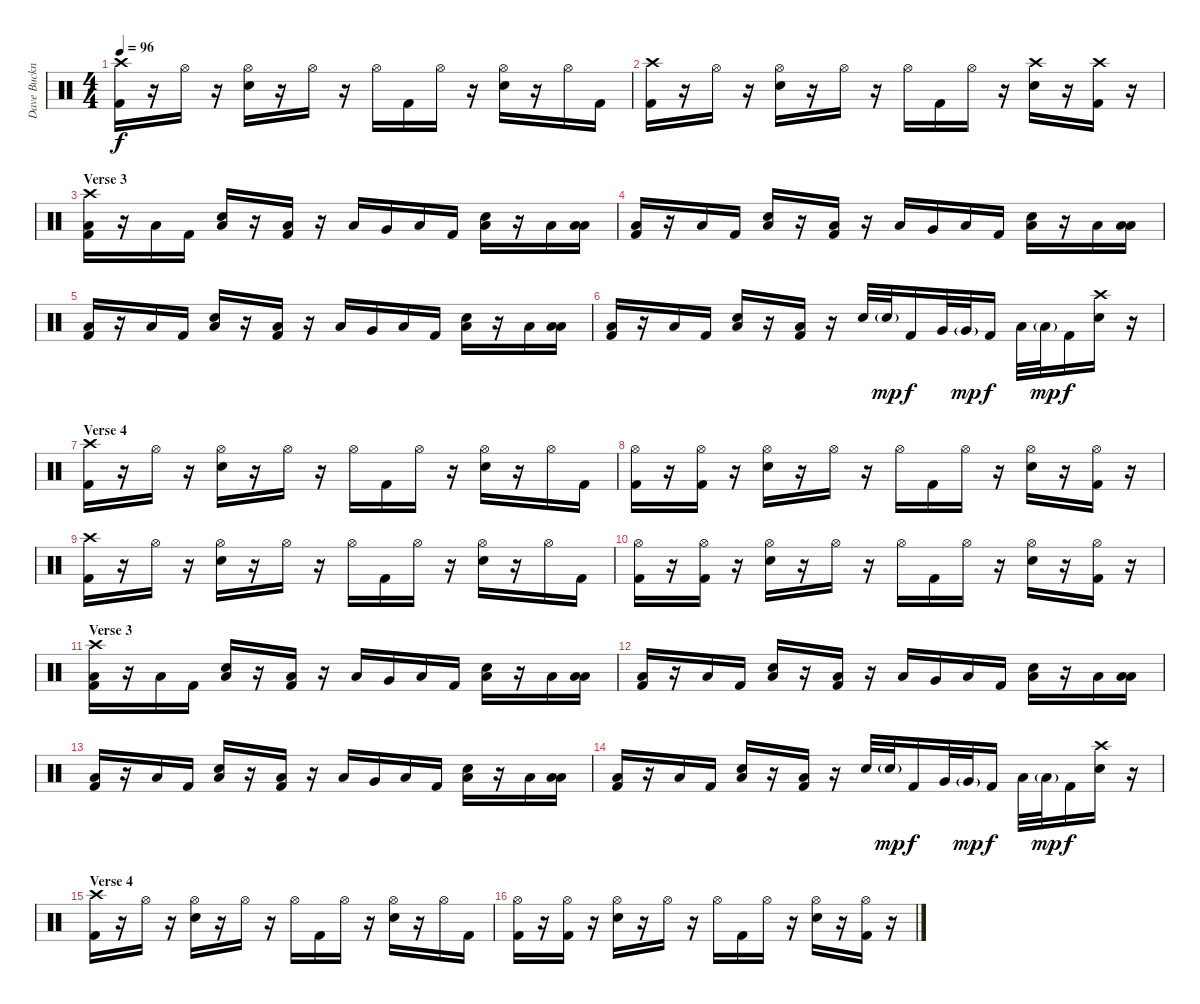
\track ("Dave Buckner" "Dave Buckn") {instrument percussion}
\staff {score}
\articulation defaults
\ts (4 4)
\tempo 96
\clef neutral
\ks c
("Crash high (hit)" "Kick (hit) 2").16{dy f} r.16 "Hi-Hat (open)".16 r.16 ("Hi-Hat (open)" "Snare (hit) 2").16 r.16 "Hi-Hat (open)".16 r.16 "Hi-Hat (open)".16 "Kick (hit) 2".16 "Hi-Hat (open)".16 r.16 ("Hi-Hat (open)" "Snare (hit) 2").16 r.16 "Hi-Hat (open)".16 "Kick (hit) 2".16 |
("Crash high (hit)" "Kick (hit) 2").16 r.16 "Hi-Hat (open)".16 r.16 ("Hi-Hat (open)" "Snare (hit) 2").16 r.16 "Hi-Hat (open)".16 r.16 "Hi-Hat (open)".16 "Kick (hit) 2".16 "Hi-Hat (open)".16 r.16 ("Crash high (hit)" "Snare (hit) 2").16 r.16 ("Crash high (hit)" "Kick (hit) 2").16 r.16 |
\section ("" "Verse 3")
("Crash high (hit)" "Low Floor Tom (hit)" "Kick (hit) 2").16 r.16 "Low Tom (hit)".16 "Kick (hit) 2".16 ("Low Floor Tom (hit)" "Snare (hit) 2").16 r.16 ("Low Floor Tom (hit)" "Kick (hit) 2").16 r.16 "Low Floor Tom (hit)".16 "Very Low Tom (hit)".16 "Low Tom (hit)".16 "Kick (hit) 2".16 ("Low Floor Tom (hit)" "Snare (hit) 2").16 r.16 "Low Floor Tom (hit)".16 ("Low Tom (hit)" "Low Floor Tom (hit)").16 |
("Low Floor Tom (hit)" "Kick (hit) 2").16 r.16 "Low Tom (hit)".16 "Kick (hit) 2".16 ("Low Floor Tom (hit)" "Snare (hit) 2").16 r.16 ("Low Floor Tom (hit)" "Kick (hit) 2").16 r.16 "Low Floor Tom (hit)".16 "Very Low Tom (hit)".16 "Low Tom (hit)".16 "Kick (hit) 2".16 ("Low Floor Tom (hit)" "Snare (hit) 2").16 r.16 "Low Floor Tom (hit)".16 ("Low Tom (hit)" "Low Floor Tom (hit)").16 |
("Low Floor Tom (hit)" "Kick (hit) 2").16 r.16 "Low Tom (hit)".16 "Kick (hit) 2".16 ("Low Floor Tom (hit)" "Snare (hit) 2").16 r.16 ("Low Floor Tom (hit)" "Kick (hit) 2").16 r.16 "Low Floor Tom (hit)".16 "Very Low Tom (hit)".16 "Low Tom (hit)".16 "Kick (hit) 2".16 ("Low Floor Tom (hit)" "Snare (hit) 2").16 r.16 "Low Floor Tom (hit)".16 ("Low Tom (hit)" "Low Floor Tom (hit)").16 |
("Low Floor Tom (hit)" "Kick (hit) 2").16 r.16 "Low Tom (hit)".16 "Kick (hit) 2".16 ("Low Floor Tom (hit)" "Snare (hit) 2").16 r.16 ("Low Floor Tom (hit)" "Kick (hit) 2").16 r.16 "Snare (hit) 2".32 "Snare (hit) 2"{g}.32{dy mp} "Kick (hit) 2".16{dy f} "Very Low Tom (hit)".32 "Very Low Tom (hit)"{g}.32{dy mp} "Kick (hit) 2".16{dy f} "Low Tom (hit)".32 "Low Tom (hit)"{g}.32{dy mp} "Kick (hit) 2".16{dy f} ("Crash high (hit)" "Snare (hit) 2").16 r.16 |
\section ("" "Verse 4")
("Crash high (hit)" "Kick (hit) 2").16 r.16 "Hi-Hat (open)".16 r.16 ("Hi-Hat (open)" "Snare (hit) 2").16 r.16 "Hi-Hat (open)".16 r.16 "Hi-Hat (open)".16 "Kick (hit) 2".16 "Hi-Hat (open)".16 r.16 ("Hi-Hat (open)" "Snare (hit) 2").16 r.16 "Hi-Hat (open)".16 "Kick (hit) 2".16 |
("Hi-Hat (open)" "Kick (hit) 2").16 r.16 ("Hi-Hat (open)" "Kick (hit) 2").16 r.16 ("Hi-Hat (open)" "Snare (hit) 2").16 r.16 "Hi-Hat (open)".16 r.16 "Hi-Hat (open)".16 "Kick (hit) 2".16 "Hi-Hat (open)".16 r.16 ("Hi-Hat (open)" "Snare (hit) 2").16 r.16 ("Hi-Hat (open)" "Kick (hit) 2").16 r.16 |
("Crash high (hit)" "Kick (hit) 2").16 r.16 "Hi-Hat (open)".16 r.16 ("Hi-Hat (open)" "Snare (hit) 2").16 r.16 "Hi-Hat (open)".16 r.16 "Hi-Hat (open)".16 "Kick (hit) 2".16 "Hi-Hat (open)".16 r.16 ("Hi-Hat (open)" "Snare (hit) 2").16 r.16 "Hi-Hat (open)".16 "Kick (hit) 2".16 |
("Hi-Hat (open)" "Kick (hit) 2").16 r.16 ("Hi-Hat (open)" "Kick (hit) 2").16 r.16 ("Hi-Hat (open)" "Snare (hit) 2").16 r.16 "Hi-Hat (open)".16 r.16 "Hi-Hat (open)".16 "Kick (hit) 2".16 "Hi-Hat (open)".16 r.16 ("Hi-Hat (open)" "Snare (hit) 2").16 r.16 ("Hi-Hat (open)" "Kick (hit) 2").16 r.16 |
\section ("" "Verse 3")
("Crash high (hit)" "Low Floor Tom (hit)" "Kick (hit) 2").16 r.16 "Low Tom (hit)".16 "Kick (hit) 2".16 ("Low Floor Tom (hit)" "Snare (hit) 2").16 r.16 ("Low Floor Tom (hit)" "Kick (hit) 2").16 r.16 "Low Floor Tom (hit)".16 "Very Low Tom (hit)".16 "Low Tom (hit)".16 "Kick (hit) 2".16 ("Low Floor Tom (hit)" "Snare (hit) 2").16 r.16 "Low Floor Tom (hit)".16 ("Low Tom (hit)" "Low Floor Tom (hit)").16 |
("Low Floor Tom (hit)" "Kick (hit) 2").16 r.16 "Low Tom (hit)".16 "Kick (hit) 2".16 ("Low Floor Tom (hit)" "Snare (hit) 2").16 r.16 ("Low Floor Tom (hit)" "Kick (hit) 2").16 r.16 "Low Floor Tom (hit)".16 "Very Low Tom (hit)".16 "Low Tom (hit)".16 "Kick (hit) 2".16 ("Low Floor Tom (hit)" "Snare (hit) 2").16 r.16 "Low Floor Tom (hit)".16 ("Low Tom (hit)" "Low Floor Tom (hit)").16 |
("Low Floor Tom (hit)" "Kick (hit) 2").16 r.16 "Low Tom (hit)".16 "Kick (hit) 2".16 ("Low Floor Tom (hit)" "Snare (hit) 2").16 r.16 ("Low Floor Tom (hit)" "Kick (hit) 2").16 r.16 "Low Floor Tom (hit)".16 "Very Low Tom (hit)".16 "Low Tom (hit)".16 "Kick (hit) 2".16 ("Low Floor Tom (hit)" "Snare (hit) 2").16 r.16 "Low Floor Tom (hit)".16 ("Low Tom (hit)" "Low Floor Tom (hit)").16 |
("Low Floor Tom (hit)" "Kick (hit) 2").16 r.16 "Low Tom (hit)".16 "Kick (hit) 2".16 ("Low Floor Tom (hit)" "Snare (hit) 2").16 r.16 ("Low Floor Tom (hit)" "Kick (hit) 2").16 r.16 "Snare (hit) 2".32 "Snare (hit) 2"{g}.32{dy mp} "Kick (hit) 2".16{dy f} "Very Low Tom (hit)".32 "Very Low Tom (hit)"{g}.32{dy mp} "Kick (hit) 2".16{dy f} "Low Tom (hit)".32 "Low Tom (hit)"{g}.32{dy mp} "Kick (hit) 2".16{dy f} ("Crash high (hit)" "Snare (hit) 2").16 r.16 |
\section ("" "Verse 4")
("Crash high (hit)" "Kick (hit) 2").16 r.16 "Hi-Hat (open)".16 r.16 ("Hi-Hat (open)" "Snare (hit) 2").16 r.16 "Hi-Hat (open)".16 r.16 "Hi-Hat (open)".16 "Kick (hit) 2".16 "Hi-Hat (open)".16 r.16 ("Hi-Hat (open)" "Snare (hit) 2").16 r.16 "Hi-Hat (open)".16 "Kick (hit) 2".16 |
("Hi-Hat (open)" "Kick (hit) 2").16 r.16 ("Hi-Hat (open)" "Kick (hit) 2").16 r.16 ("Hi-Hat (open)" "Snare (hit) 2").16 r.16 "Hi-Hat (open)".16 r.16 "Hi-Hat (open)".16 "Kick (hit) 2".16 "Hi-Hat (open)".16 r.16 ("Hi-Hat (open)" "Snare (hit) 2").16 r.16 ("Hi-Hat (open)" "Kick (hit) 2").16 r.16
